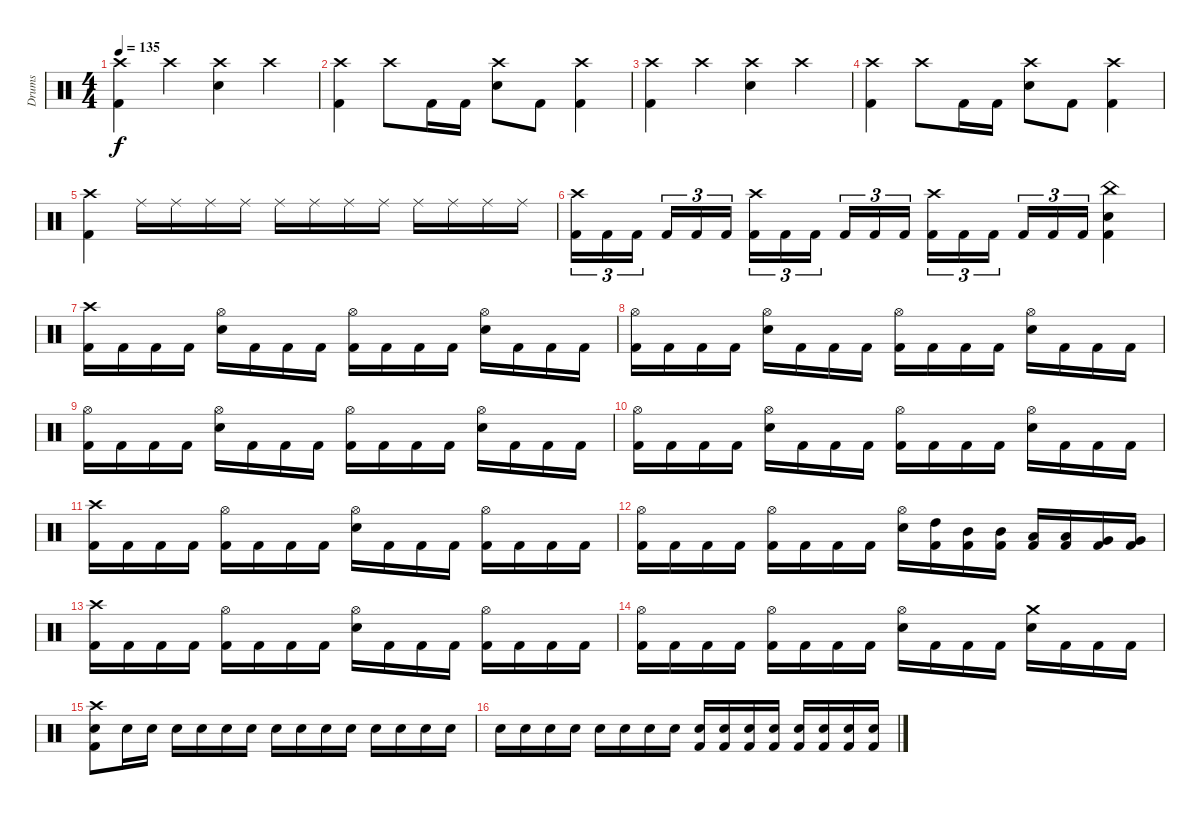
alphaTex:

\track ("Drums" "Drums") {instrument percussion}
\staff {score}
\articulation defaults
\ts (4 4)
\tempo 135
\clef neutral
\ks c
("Crash high (hit)" "Kick (hit) 2").4{dy f} "Crash high (hit)".4 ("Crash high (hit)" "Snare (hit) 2").4 "Crash high (hit)".4 |
("Crash high (hit)" "Kick (hit) 2").4 "Crash high (hit)".8 "Kick (hit) 2".16 "Kick (hit) 2".16 ("Crash high (hit)" "Snare (hit) 2").8 "Kick (hit) 2".8 ("Crash high (hit)" "Kick (hit) 2").4 |
("Crash high (hit)" "Kick (hit) 2").4 "Crash high (hit)".4 ("Crash high (hit)" "Snare (hit) 2").4 "Crash high (hit)".4 |
("Crash high (hit)" "Kick (hit) 2").4 "Crash high (hit)".8 "Kick (hit) 2".16 "Kick (hit) 2".16 ("Crash high (hit)" "Snare (hit) 2").8 "Kick (hit) 2".8 ("Crash high (hit)" "Kick (hit) 2").4 |
("Crash high (hit)" "Kick (hit) 2").4 "Ride (middle)".16 "Ride (middle)".16 "Ride (middle)".16 "Ride (middle)".16 "Ride (middle)".16 "Ride (middle)".16 "Ride (middle)".16 "Ride (middle)".16 "Ride (middle)".16 "Ride (middle)".16 "Ride (middle)".16 "Ride (middle)".16 |
("Crash high (hit)" "Kick (hit) 2").16{tu (3 2)} "Kick (hit) 2".16{tu (3 2)} "Kick (hit) 2".16{tu (3 2) beam splitsecondary} "Kick (hit) 2".16{tu (3 2)} "Kick (hit) 2".16{tu (3 2)} "Kick (hit) 2".16{tu (3 2)} ("Crash high (hit)" "Kick (hit) 2").16{tu (3 2)} "Kick (hit) 2".16{tu (3 2)} "Kick (hit) 2".16{tu (3 2) beam splitsecondary} "Kick (hit) 2".16{tu (3 2)} "Kick (hit) 2".16{tu (3 2)} "Kick (hit) 2".16{tu (3 2)} ("Crash high (hit)" "Kick (hit) 2").16{tu (3 2)} "Kick (hit) 2".16{tu (3 2)} "Kick (hit) 2".16{tu (3 2) beam splitsecondary} "Kick (hit) 2".16{tu (3 2)} "Kick (hit) 2".16{tu (3 2)} "Kick (hit) 2".16{tu (3 2)} ("China (hit)" "Snare (hit) 2" "Kick (hit) 2").4 |
("Crash high (hit)" "Kick (hit) 2").16 "Kick (hit) 2".16 "Kick (hit) 2".16 "Kick (hit) 2".16 ("Hi-Hat (open)" "Snare (hit) 2").16 "Kick (hit) 2".16 "Kick (hit) 2".16 "Kick (hit) 2".16 ("Hi-Hat (open)" "Kick (hit) 2").16 "Kick (hit) 2".16 "Kick (hit) 2".16 "Kick (hit) 2".16 ("Hi-Hat (open)" "Snare (hit) 2").16 "Kick (hit) 2".16 "Kick (hit) 2".16 "Kick (hit) 2".16 |
("Hi-Hat (open)" "Kick (hit) 2").16 "Kick (hit) 2".16 "Kick (hit) 2".16 "Kick (hit) 2".16 ("Hi-Hat (open)" "Snare (hit) 2").16 "Kick (hit) 2".16 "Kick (hit) 2".16 "Kick (hit) 2".16 ("Hi-Hat (open)" "Kick (hit) 2").16 "Kick (hit) 2".16 "Kick (hit) 2".16 "Kick (hit) 2".16 ("Hi-Hat (open)" "Snare (hit) 2").16 "Kick (hit) 2".16 "Kick (hit) 2".16 "Kick (hit) 2".16 |
("Hi-Hat (open)" "Kick (hit) 2").16 "Kick (hit) 2".16 "Kick (hit) 2".16 "Kick (hit) 2".16 ("Hi-Hat (open)" "Snare (hit) 2").16 "Kick (hit) 2".16 "Kick (hit) 2".16 "Kick (hit) 2".16 ("Hi-Hat (open)" "Kick (hit) 2").16 "Kick (hit) 2".16 "Kick (hit) 2".16 "Kick (hit) 2".16 ("Hi-Hat (open)" "Snare (hit) 2").16 "Kick (hit) 2".16 "Kick (hit) 2".16 "Kick (hit) 2".16 |
("Hi-Hat (open)" "Kick (hit) 2").16 "Kick (hit) 2".16 "Kick (hit) 2".16 "Kick (hit) 2".16 ("Hi-Hat (open)" "Snare (hit) 2").16 "Kick (hit) 2".16 "Kick (hit) 2".16 "Kick (hit) 2".16 ("Hi-Hat (open)" "Kick (hit) 2").16 "Kick (hit) 2".16 "Kick (hit) 2".16 "Kick (hit) 2".16 ("Hi-Hat (open)" "Snare (hit) 2").16 "Kick (hit) 2".16 "Kick (hit) 2".16 "Kick (hit) 2".16 |
("Crash high (hit)" "Kick (hit) 2").16 "Kick (hit) 2".16 "Kick (hit) 2".16 "Kick (hit) 2".16 ("Hi-Hat (open)" "Kick (hit) 2").16 "Kick (hit) 2".16 "Kick (hit) 2".16 "Kick (hit) 2".16 ("Hi-Hat (open)" "Snare (hit) 2").16 "Kick (hit) 2".16 "Kick (hit) 2".16 "Kick (hit) 2".16 ("Hi-Hat (open)" "Kick (hit) 2").16 "Kick (hit) 2".16 "Kick (hit) 2".16 "Kick (hit) 2".16 |
("Hi-Hat (open)" "Kick (hit) 2").16 "Kick (hit) 2".16 "Kick (hit) 2".16 "Kick (hit) 2".16 ("Hi-Hat (open)" "Kick (hit) 2").16 "Kick (hit) 2".16 "Kick (hit) 2".16 "Kick (hit) 2".16 ("Hi-Hat (open)" "Snare (hit) 2").16 ("High Tom (hit)" "Kick (hit) 2").16 ("Mid Tom (hit)" "Kick (hit) 2").16 ("Mid Tom (hit)" "Kick (hit) 2").16 ("Low Tom (hit)" "Kick (hit) 2").16 ("Low Tom (hit)" "Kick (hit) 2").16 ("Very Low Tom (hit)" "Kick (hit) 2").16 ("Very Low Tom (hit)" "Kick (hit) 2").16 |
("Crash high (hit)" "Kick (hit) 2").16 "Kick (hit) 2".16 "Kick (hit) 2".16 "Kick (hit) 2".16 ("Hi-Hat (open)" "Kick (hit) 2").16 "Kick (hit) 2".16 "Kick (hit) 2".16 "Kick (hit) 2".16 ("Hi-Hat (open)" "Snare (hit) 2").16 "Kick (hit) 2".16 "Kick (hit) 2".16 "Kick (hit) 2".16 ("Hi-Hat (open)" "Kick (hit) 2").16 "Kick (hit) 2".16 "Kick (hit) 2".16 "Kick (hit) 2".16 |
("Hi-Hat (open)" "Kick (hit) 2").16 "Kick (hit) 2".16 "Kick (hit) 2".16 "Kick (hit) 2".16 ("Hi-Hat (open)" "Kick (hit) 2").16 "Kick (hit) 2".16 "Kick (hit) 2".16 "Kick (hit) 2".16 ("Hi-Hat (open)" "Snare (hit) 2").16 "Kick (hit) 2".16 "Kick (hit) 2".16 "Kick (hit) 2".16 ("Crash medium (hit)" "Snare (hit) 2").16 "Kick (hit) 2".16 "Kick (hit) 2".16 "Kick (hit) 2".16 |
("Crash high (hit)" "Snare (hit) 2" "Kick (hit) 2").8 "Snare (hit) 2".16 "Snare (hit) 2".16 "Snare (hit) 2".16 "Snare (hit) 2".16 "Snare (hit) 2".16 "Snare (hit) 2".16 "Snare (hit) 2".16 "Snare (hit) 2".16 "Snare (hit) 2".16 "Snare (hit) 2".16 "Snare (hit) 2".16 "Snare (hit) 2".16 "Snare (hit) 2".16 "Snare (hit) 2".16 |
"Snare (hit) 2".16 "Snare (hit) 2".16 "Snare (hit) 2".16 "Snare (hit) 2".16 "Snare (hit) 2".16 "Snare (hit) 2".16 "Snare (hit) 2".16 "Snare (hit) 2".16 ("Snare (hit) 2" "Kick (hit) 2").16 ("Snare (hit) 2" "Kick (hit) 2").16 ("Snare (hit) 2" "Kick (hit) 2").16 ("Snare (hit) 2" "Kick (hit) 2").16 ("Snare (hit) 2" "Kick (hit) 2").16 ("Snare (hit) 2" "Kick (hit) 2").16 ("Snare (hit) 2" "Kick (hit) 2").16 ("Snare (hit) 2" "Kick (hit) 2").16
